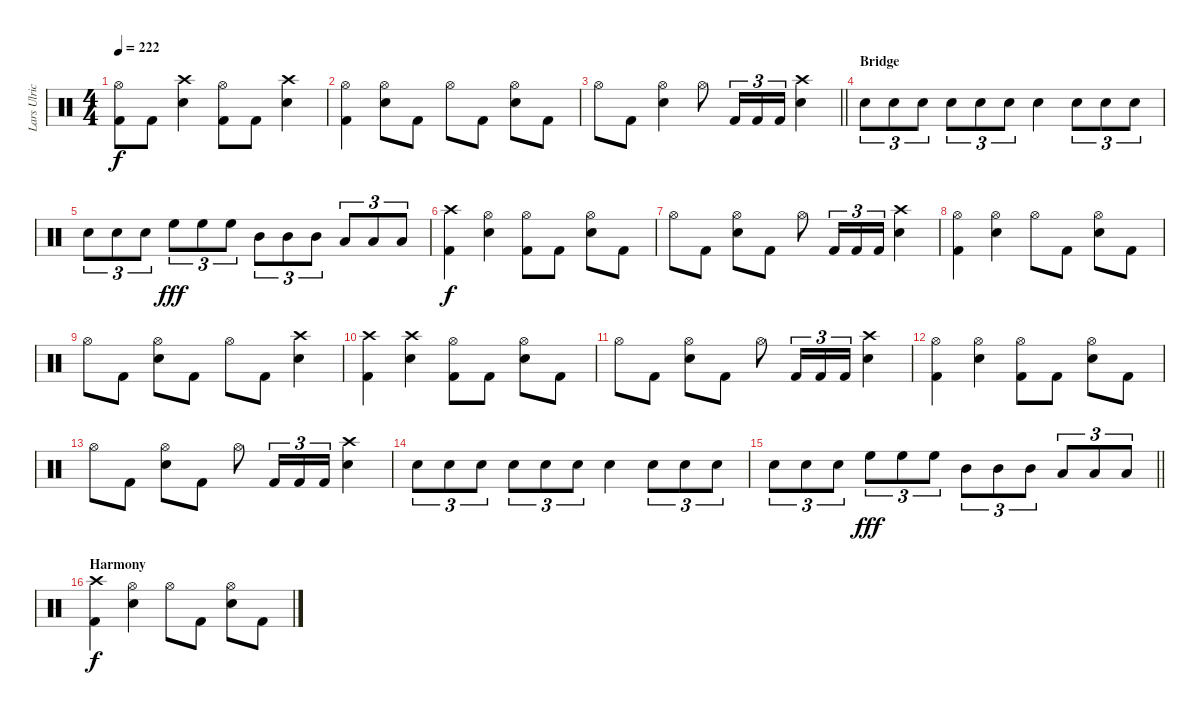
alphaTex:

\track ("Lars Ulrich" "Lars Ulric") {instrument percussion}
\staff {score}
\articulation defaults
\ts (4 4)
\tempo 222
\clef neutral
\ks c
("Hi-Hat (open)" "Kick (hit) 2").8{dy f} "Kick (hit) 2".8 ("Crash high (hit)" "Electric Snare (hit)").4 ("Hi-Hat (open)" "Kick (hit) 2").8 "Kick (hit) 2".8 ("Crash high (hit)" "Electric Snare (hit)").4 |
("Hi-Hat (open)" "Kick (hit) 2").4 ("Hi-Hat (open)" "Electric Snare (hit)").8 "Kick (hit) 2".8 "Hi-Hat (open)".8 "Kick (hit) 2".8 ("Hi-Hat (open)" "Electric Snare (hit)").8 "Kick (hit) 2".8 |
\barLineRight lightlight "Hi-Hat (open)".8 "Kick (hit) 2".8
("Hi-Hat (open)" "Electric Snare (hit)").4 "Hi-Hat (open)".8 "Kick (hit) 2".16{tu (3 2)} "Kick (hit) 2".16{tu (3 2)} "Kick (hit) 2".16{tu (3 2)} ("Crash high (hit)" "Electric Snare (hit)").4 |
\section ("" "Bridge")
"Electric Snare (hit)".8{tu (3 2)} "Electric Snare (hit)".8{tu (3 2)} "Electric Snare (hit)".8{tu (3 2)} "Electric Snare (hit)".8{tu (3 2)} "Electric Snare (hit)".8{tu (3 2)} "Electric Snare (hit)".8{tu (3 2)} "Electric Snare (hit)".4 "Electric Snare (hit)".8{tu (3 2)} "Electric Snare (hit)".8{tu (3 2)} "Electric Snare (hit)".8{tu (3 2)} |
"Electric Snare (hit)".8{tu (3 2)} "Electric Snare (hit)".8{tu (3 2)} "Electric Snare (hit)".8{tu (3 2)} "High Floor Tom (hit)".8{tu (3 2) dy fff} "High Floor Tom (hit)".8{tu (3 2)} "High Floor Tom (hit)".8{tu (3 2)} "Mid Tom (hit)".8{tu (3 2)} "Mid Tom (hit)".8{tu (3 2)} "Mid Tom (hit)".8{tu (3 2)} "Low Tom (hit)".8{tu (3 2)} "Low Tom (hit)".8{tu (3 2)} "Low Tom (hit)".8{tu (3 2)} |
("Crash high (hit)" "Kick (hit) 2").4{dy f} ("Hi-Hat (open)" "Electric Snare (hit)").4 ("Hi-Hat (open)" "Kick (hit) 2").8 "Kick (hit) 2".8 ("Hi-Hat (open)" "Electric Snare (hit)").8 "Kick (hit) 2".8 |
"Hi-Hat (open)".8 "Kick (hit) 2".8 ("Hi-Hat (open)" "Electric Snare (hit)").8 "Kick (hit) 2".8 "Hi-Hat (open)".8 "Kick (hit) 2".16{tu (3 2)} "Kick (hit) 2".16{tu (3 2)} "Kick (hit) 2".16{tu (3 2)} ("Crash high (hit)" "Electric Snare (hit)").4 |
("Hi-Hat (open)" "Kick (hit) 2").4 ("Hi-Hat (open)" "Electric Snare (hit)").4 "Hi-Hat (open)".8 "Kick (hit) 2".8 ("Hi-Hat (open)" "Electric Snare (hit)").8 "Kick (hit) 2".8 |
"Hi-Hat (open)".8 "Kick (hit) 2".8 ("Hi-Hat (open)" "Electric Snare (hit)").8 "Kick (hit) 2".8 "Hi-Hat (open)".8 "Kick (hit) 2".8 ("Crash high (hit)" "Electric Snare (hit)").4 |
("Crash high (hit)" "Kick (hit) 2").4 ("Crash high (hit)" "Electric Snare (hit)").4 ("Hi-Hat (open)" "Kick (hit) 2").8 "Kick (hit) 2".8 ("Hi-Hat (open)" "Electric Snare (hit)").8 "Kick (hit) 2".8 |
"Hi-Hat (open)".8 "Kick (hit) 2".8 ("Hi-Hat (open)" "Electric Snare (hit)").8 "Kick (hit) 2".8 "Hi-Hat (open)".8 "Kick (hit) 2".16{tu (3 2)} "Kick (hit) 2".16{tu (3 2)} "Kick (hit) 2".16{tu (3 2)} ("Crash high (hit)" "Electric Snare (hit)").4 |
("Hi-Hat (open)" "Kick (hit) 2").4 ("Hi-Hat (open)" "Electric Snare (hit)").4 ("Hi-Hat (open)" "Kick (hit) 2").8 "Kick (hit) 2".8 ("Hi-Hat (open)" "Electric Snare (hit)").8 "Kick (hit) 2".8 |
"Hi-Hat (open)".8 "Kick (hit) 2".8 ("Hi-Hat (open)" "Electric Snare (hit)").8 "Kick (hit) 2".8 "Hi-Hat (open)".8 "Kick (hit) 2".16{tu (3 2)} "Kick (hit) 2".16{tu (3 2)} "Kick (hit) 2".16{tu (3 2)} ("Crash high (hit)" "Electric Snare (hit)").4 |
"Electric Snare (hit)".8{tu (3 2)} "Electric Snare (hit)".8{tu (3 2)} "Electric Snare (hit)".8{tu (3 2)} "Electric Snare (hit)".8{tu (3 2)} "Electric Snare (hit)".8{tu (3 2)} "Electric Snare (hit)".8{tu (3 2)} "Electric Snare (hit)".4 "Electric Snare (hit)".8{tu (3 2)} "Electric Snare (hit)".8{tu (3 2)} "Electric Snare (hit)".8{tu (3 2)} |
\barLineRight lightlight "Electric Snare (hit)".8{tu (3 2)} "Electric Snare (hit)".8{tu (3 2)} "Electric Snare (hit)".8{tu (3 2)} "High Floor Tom (hit)".8{tu (3 2) dy fff} "High Floor Tom (hit)".8{tu (3 2)} "High Floor Tom (hit)".8{tu (3 2)} "Mid Tom (hit)".8{tu (3 2)} "Mid Tom (hit)".8{tu (3 2)} "Mid Tom (hit)".8{tu (3 2)} "Low Tom (hit)".8{tu (3 2)} "Low Tom (hit)".8{tu (3 2)} "Low Tom (hit)".8{tu (3 2)}
|
\section ("" "Harmony")
("Crash high (hit)" "Kick (hit) 2").4{dy f} ("Hi-Hat (open)" "Electric Snare (hit)").4 "Hi-Hat (open)".8 "Kick (hit) 2".8 ("Hi-Hat (open)" "Electric Snare (hit)").8 "Kick (hit) 2".8
